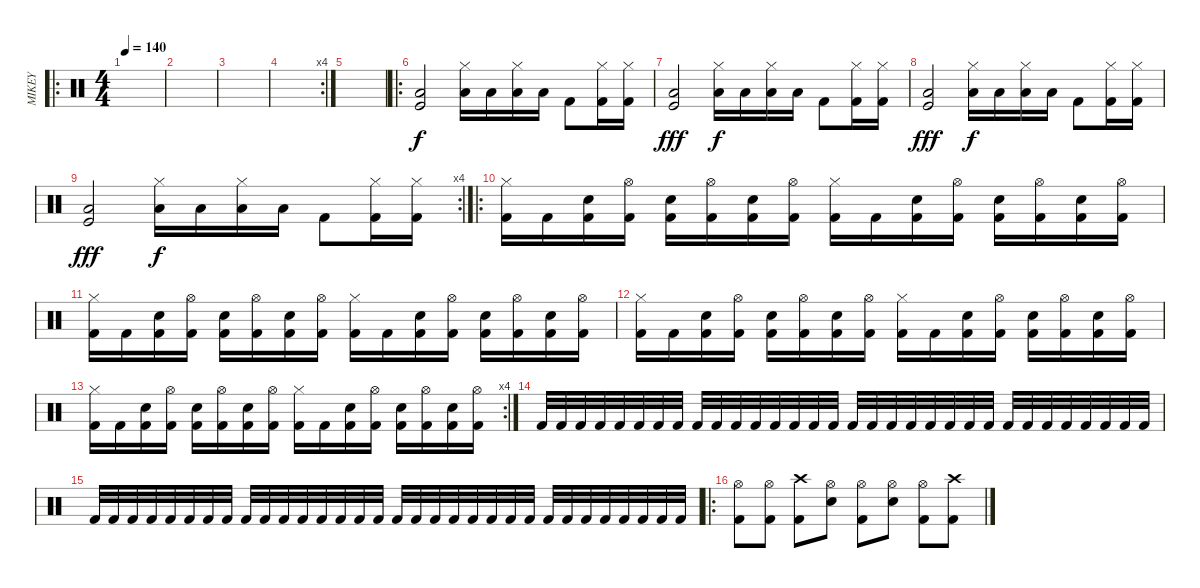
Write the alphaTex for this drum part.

\track ("MIKEY" "MIKEY") {instrument percussion}
\staff {score}
\articulation defaults
\ro
\ts (4 4)
\tempo 140
\clef neutral
\ks c
|
|
|
\rc 4
|
|
\ro
("Kick (hit)" "Low Floor Tom (hit)").2 ("Hi-Hat (closed)" "Low Floor Tom (hit)").16{dy f} "Low Floor Tom (hit)".16 ("Hi-Hat (closed)" "Low Floor Tom (hit)").16 "Low Floor Tom (hit)".16 "Kick (hit) 2".8 ("Hi-Hat (closed)" "Kick (hit) 2").16 ("Hi-Hat (closed)" "Kick (hit) 2").16 |
("Kick (hit)" "Low Floor Tom (hit)").2{dy fff} ("Hi-Hat (closed)" "Low Floor Tom (hit)").16{dy f} "Low Floor Tom (hit)".16 ("Hi-Hat (closed)" "Low Floor Tom (hit)").16 "Low Floor Tom (hit)".16 "Kick (hit) 2".8 ("Hi-Hat (closed)" "Kick (hit) 2").16 ("Hi-Hat (closed)" "Kick (hit) 2").16 |
("Kick (hit)" "Low Floor Tom (hit)").2{dy fff} ("Hi-Hat (closed)" "Low Floor Tom (hit)").16{dy f} "Low Floor Tom (hit)".16 ("Hi-Hat (closed)" "Low Floor Tom (hit)").16 "Low Floor Tom (hit)".16 "Kick (hit) 2".8 ("Hi-Hat (closed)" "Kick (hit) 2").16 ("Hi-Hat (closed)" "Kick (hit) 2").16 |
\rc 4
("Kick (hit)" "Low Floor Tom (hit)").2{dy fff} ("Hi-Hat (closed)" "Low Floor Tom (hit)").16{dy f} "Low Floor Tom (hit)".16 ("Hi-Hat (closed)" "Low Floor Tom (hit)").16 "Low Floor Tom (hit)".16 "Kick (hit) 2".8 ("Hi-Hat (closed)" "Kick (hit) 2").16 ("Hi-Hat (closed)" "Kick (hit) 2").16 |
\ro
("Hi-Hat (closed)" "Kick (hit) 2").16 "Kick (hit) 2".16 ("Electric Snare (hit)" "Kick (hit) 2").16 ("Hi-Hat (open)" "Kick (hit) 2").16 ("Electric Snare (hit)" "Kick (hit) 2").16 ("Hi-Hat (open)" "Kick (hit) 2").16 ("Electric Snare (hit)" "Kick (hit) 2").16 ("Hi-Hat (open)" "Kick (hit) 2").16 ("Hi-Hat (closed)" "Kick (hit) 2").16 "Kick (hit) 2".16 ("Electric Snare (hit)" "Kick (hit) 2").16 ("Hi-Hat (open)" "Kick (hit) 2").16 ("Electric Snare (hit)" "Kick (hit) 2").16 ("Hi-Hat (open)" "Kick (hit) 2").16 ("Electric Snare (hit)" "Kick (hit) 2").16 ("Hi-Hat (open)" "Kick (hit) 2").16 |
("Hi-Hat (closed)" "Kick (hit) 2").16 "Kick (hit) 2".16 ("Electric Snare (hit)" "Kick (hit) 2").16 ("Hi-Hat (open)" "Kick (hit) 2").16 ("Electric Snare (hit)" "Kick (hit) 2").16 ("Hi-Hat (open)" "Kick (hit) 2").16 ("Electric Snare (hit)" "Kick (hit) 2").16 ("Hi-Hat (open)" "Kick (hit) 2").16 ("Hi-Hat (closed)" "Kick (hit) 2").16 "Kick (hit) 2".16 ("Electric Snare (hit)" "Kick (hit) 2").16 ("Hi-Hat (open)" "Kick (hit) 2").16 ("Electric Snare (hit)" "Kick (hit) 2").16 ("Hi-Hat (open)" "Kick (hit) 2").16 ("Electric Snare (hit)" "Kick (hit) 2").16 ("Hi-Hat (open)" "Kick (hit) 2").16 |
("Hi-Hat (closed)" "Kick (hit) 2").16 "Kick (hit) 2".16 ("Electric Snare (hit)" "Kick (hit) 2").16 ("Hi-Hat (open)" "Kick (hit) 2").16 ("Electric Snare (hit)" "Kick (hit) 2").16 ("Hi-Hat (open)" "Kick (hit) 2").16 ("Electric Snare (hit)" "Kick (hit) 2").16 ("Hi-Hat (open)" "Kick (hit) 2").16 ("Hi-Hat (closed)" "Kick (hit) 2").16 "Kick (hit) 2".16 ("Electric Snare (hit)" "Kick (hit) 2").16 ("Hi-Hat (open)" "Kick (hit) 2").16 ("Electric Snare (hit)" "Kick (hit) 2").16 ("Hi-Hat (open)" "Kick (hit) 2").16 ("Electric Snare (hit)" "Kick (hit) 2").16 ("Hi-Hat (open)" "Kick (hit) 2").16 |
\rc 4
("Hi-Hat (closed)" "Kick (hit) 2").16 "Kick (hit) 2".16 ("Electric Snare (hit)" "Kick (hit) 2").16 ("Hi-Hat (open)" "Kick (hit) 2").16 ("Electric Snare (hit)" "Kick (hit) 2").16 ("Hi-Hat (open)" "Kick (hit) 2").16 ("Electric Snare (hit)" "Kick (hit) 2").16 ("Hi-Hat (open)" "Kick (hit) 2").16 ("Hi-Hat (closed)" "Kick (hit) 2").16 "Kick (hit) 2".16 ("Electric Snare (hit)" "Kick (hit) 2").16 ("Hi-Hat (open)" "Kick (hit) 2").16 ("Electric Snare (hit)" "Kick (hit) 2").16 ("Hi-Hat (open)" "Kick (hit) 2").16 ("Electric Snare (hit)" "Kick (hit) 2").16 ("Hi-Hat (open)" "Kick (hit) 2").16 |
"Kick (hit) 2".32 "Kick (hit) 2".32 "Kick (hit) 2".32 "Kick (hit) 2".32 "Kick (hit) 2".32 "Kick (hit) 2".32 "Kick (hit) 2".32 "Kick (hit) 2".32 "Kick (hit) 2".32 "Kick (hit) 2".32 "Kick (hit) 2".32 "Kick (hit) 2".32 "Kick (hit) 2".32 "Kick (hit) 2".32 "Kick (hit) 2".32 "Kick (hit) 2".32 "Kick (hit) 2".32 "Kick (hit) 2".32 "Kick (hit) 2".32 "Kick (hit) 2".32 "Kick (hit) 2".32 "Kick (hit) 2".32 "Kick (hit) 2".32 "Kick (hit) 2".32 "Kick (hit) 2".32 "Kick (hit) 2".32 "Kick (hit) 2".32 "Kick (hit) 2".32 "Kick (hit) 2".32 "Kick (hit) 2".32 "Kick (hit) 2".32 "Kick (hit) 2".32 |
"Kick (hit) 2".32 "Kick (hit) 2".32 "Kick (hit) 2".32 "Kick (hit) 2".32 "Kick (hit) 2".32 "Kick (hit) 2".32 "Kick (hit) 2".32 "Kick (hit) 2".32 "Kick (hit) 2".32 "Kick (hit) 2".32 "Kick (hit) 2".32 "Kick (hit) 2".32 "Kick (hit) 2".32 "Kick (hit) 2".32 "Kick (hit) 2".32 "Kick (hit) 2".32 "Kick (hit) 2".32 "Kick (hit) 2".32 "Kick (hit) 2".32 "Kick (hit) 2".32 "Kick (hit) 2".32 "Kick (hit) 2".32 "Kick (hit) 2".32 "Kick (hit) 2".32 "Kick (hit) 2".32 "Kick (hit) 2".32 "Kick (hit) 2".32 "Kick (hit) 2".32 "Kick (hit) 2".32 "Kick (hit) 2".32 "Kick (hit) 2".32 "Kick (hit) 2".32 |
\ro
("Hi-Hat (open)" "Kick (hit) 2").8 ("Hi-Hat (open)" "Kick (hit) 2").8 ("Crash high (hit)" "Kick (hit) 2").8 ("Hi-Hat (open)" "Snare (hit) 2").8 ("Hi-Hat (open)" "Kick (hit) 2").8 ("Hi-Hat (open)" "Snare (hit) 2").8 ("Hi-Hat (open)" "Kick (hit) 2").8 ("Crash high (hit)" "Kick (hit) 2").8
